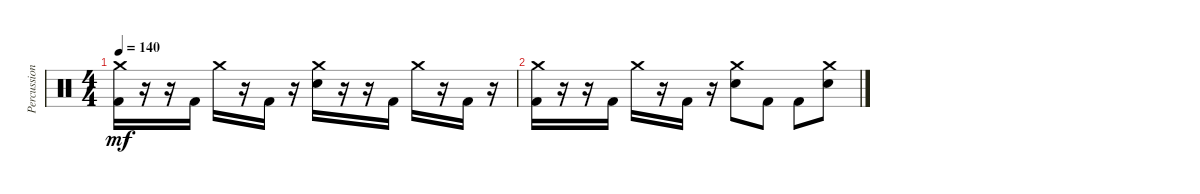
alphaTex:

\track ("Percussions" "Percussion") {instrument percussion}
\staff {score}
\articulation defaults
\ts (4 4)
\tempo 140
\clef neutral
\ks c
("Kick (hit) 2" "Crash medium (hit)").16{dy mf} r.16 r.16 "Kick (hit) 2".16 "Crash medium (hit)".16 r.16 "Kick (hit) 2".16 r.16 ("Electric Snare (hit)" "Crash medium (hit)").16 r.16 r.16 "Kick (hit) 2".16 "Crash medium (hit)".16 r.16 "Kick (hit) 2".16 r.16 |
("Kick (hit) 2" "Crash medium (hit)").16 r.16 r.16 "Kick (hit) 2".16 "Crash medium (hit)".16 r.16 "Kick (hit) 2".16 r.16 ("Electric Snare (hit)" "Crash medium (hit)").8 "Kick (hit) 2".8 "Kick (hit) 2".8 ("Electric Snare (hit)" "Crash medium (hit)").8
